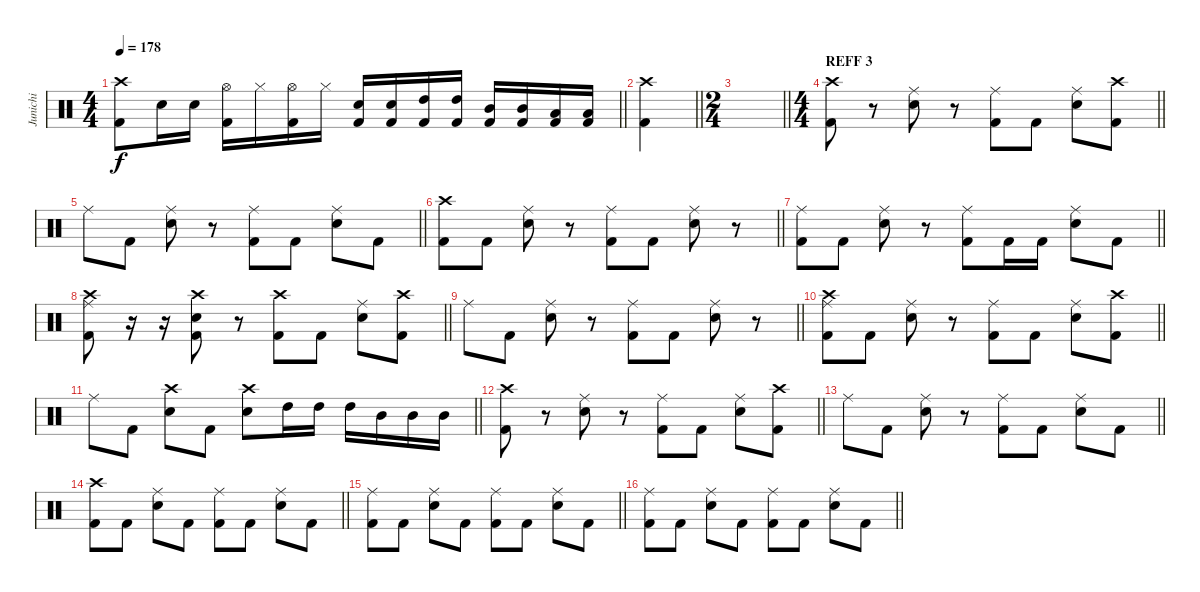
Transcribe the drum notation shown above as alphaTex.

\track ("Junichi" "Junichi") {instrument percussion}
\staff {score}
\articulation defaults
\ts (4 4)
\tempo 178
\clef neutral
\barLineRight lightlight
\ks c
("Crash high (hit)" "Kick (hit) 2").8{dy f} "Snare (hit) 2".16 "Snare (hit) 2".16 ("Hi-Hat (open)" "Kick (hit) 2").16 "Hi-Hat (closed)".16 ("Hi-Hat (open)" "Kick (hit) 2").16 "Hi-Hat (closed)".16 ("Snare (hit) 2" "Kick (hit) 2").16 ("Snare (hit) 2" "Kick (hit) 2").16 ("High Tom (hit)" "Kick (hit) 2").16 ("High Tom (hit)" "Kick (hit) 2").16 ("Mid Tom (hit)" "Kick (hit) 2").16 ("Mid Tom (hit)" "Kick (hit) 2").16 ("Low Tom (hit)" "Kick (hit) 2").16 ("Low Tom (hit)" "Kick (hit) 2").16 |
\barLineRight lightlight
("Crash high (hit)" "Kick (hit) 2").4 |
\ts (2 4)
\barLineRight lightlight
|
\ts (4 4)
\section ("" "REFF 3")
\barLineRight lightlight
("Crash high (hit)" "Kick (hit) 2").8 r.8 ("Ride (middle)" "Snare (hit) 2").8 r.8 ("Ride (middle)" "Kick (hit) 2").8 "Kick (hit) 2".8 ("Ride (middle)" "Snare (hit) 2").8 ("Crash high (hit)" "Kick (hit) 2").8 |
\barLineRight lightlight "Ride (middle)".8 "Kick (hit) 2".8
("Ride (middle)" "Snare (hit) 2").8 r.8 ("Ride (middle)" "Kick (hit) 2").8 "Kick (hit) 2".8 ("Ride (middle)" "Snare (hit) 2").8 "Kick (hit) 2".8 |
\barLineRight lightlight
("Crash high (hit)" "Kick (hit) 2").8 "Kick (hit) 2".8 ("Ride (middle)" "Snare (hit) 2").8 r.8 ("Ride (middle)" "Kick (hit) 2").8 "Kick (hit) 2".8 ("Ride (middle)" "Snare (hit) 2").8 r.8 |
\barLineRight lightlight
("Ride (middle)" "Kick (hit) 2").8 "Kick (hit) 2".8 ("Ride (middle)" "Snare (hit) 2").8 r.8 ("Ride (middle)" "Kick (hit) 2").8 "Kick (hit) 2".16 "Kick (hit) 2".16 ("Ride (middle)" "Snare (hit) 2").8 "Kick (hit) 2".8 |
\barLineRight lightlight
("Crash high (hit)" "Ride (middle)" "Kick (hit) 2").8 r.16 r.16 ("Crash high (hit)" "Snare (hit) 2" "Kick (hit) 2").8 r.8 ("Crash high (hit)" "Kick (hit) 2").8 "Kick (hit) 2".8 ("Ride (middle)" "Snare (hit) 2").8 ("Crash high (hit)" "Kick (hit) 2").8 |
\barLineRight lightlight "Ride (middle)".8 "Kick (hit) 2".8
("Ride (middle)" "Snare (hit) 2").8 r.8 ("Ride (middle)" "Kick (hit) 2").8 "Kick (hit) 2".8 ("Ride (middle)" "Snare (hit) 2").8 r.8 |
\barLineRight lightlight
("Crash high (hit)" "Ride (middle)" "Kick (hit) 2").8 "Kick (hit) 2".8 ("Ride (middle)" "Snare (hit) 2").8 r.8 ("Ride (middle)" "Kick (hit) 2").8 "Kick (hit) 2".8 ("Ride (middle)" "Snare (hit) 2").8 ("Crash high (hit)" "Kick (hit) 2").8 |
\barLineRight lightlight "Ride (middle)".8 "Kick (hit) 2".8
("Crash high (hit)" "Snare (hit) 2").8 "Kick (hit) 2".8 ("Crash high (hit)" "Snare (hit) 2").8 "High Tom (hit)".16 "High Tom (hit)".16 "High Tom (hit)".16 "Mid Tom (hit)".16 "Mid Tom (hit)".16 "Mid Tom (hit)".16 |
\barLineRight lightlight
("Crash high (hit)" "Kick (hit) 2").8 r.8 ("Ride (middle)" "Snare (hit) 2").8 r.8 ("Ride (middle)" "Kick (hit) 2").8 "Kick (hit) 2".8 ("Ride (middle)" "Snare (hit) 2").8 ("Crash high (hit)" "Kick (hit) 2").8 |
\barLineRight lightlight "Ride (middle)".8 "Kick (hit) 2".8
("Ride (middle)" "Snare (hit) 2").8 r.8 ("Ride (middle)" "Kick (hit) 2").8 "Kick (hit) 2".8 ("Ride (middle)" "Snare (hit) 2").8 "Kick (hit) 2".8 |
\barLineRight lightlight
("Crash high (hit)" "Kick (hit) 2").8 "Kick (hit) 2".8 ("Ride (middle)" "Snare (hit) 2").8 "Kick (hit) 2".8 ("Ride (middle)" "Kick (hit) 2").8 "Kick (hit) 2".8 ("Ride (middle)" "Snare (hit) 2").8 "Kick (hit) 2".8 |
\barLineRight lightlight
("Ride (middle)" "Kick (hit) 2").8 "Kick (hit) 2".8 ("Ride (middle)" "Snare (hit) 2").8 "Kick (hit) 2".8 ("Ride (middle)" "Kick (hit) 2").8 "Kick (hit) 2".8 ("Ride (middle)" "Snare (hit) 2").8 "Kick (hit) 2".8 |
\barLineRight lightlight
("Ride (middle)" "Kick (hit) 2").8 "Kick (hit) 2".8 ("Ride (middle)" "Snare (hit) 2").8 "Kick (hit) 2".8 ("Ride (middle)" "Kick (hit) 2").8 "Kick (hit) 2".8 ("Ride (middle)" "Snare (hit) 2").8 "Kick (hit) 2".8
